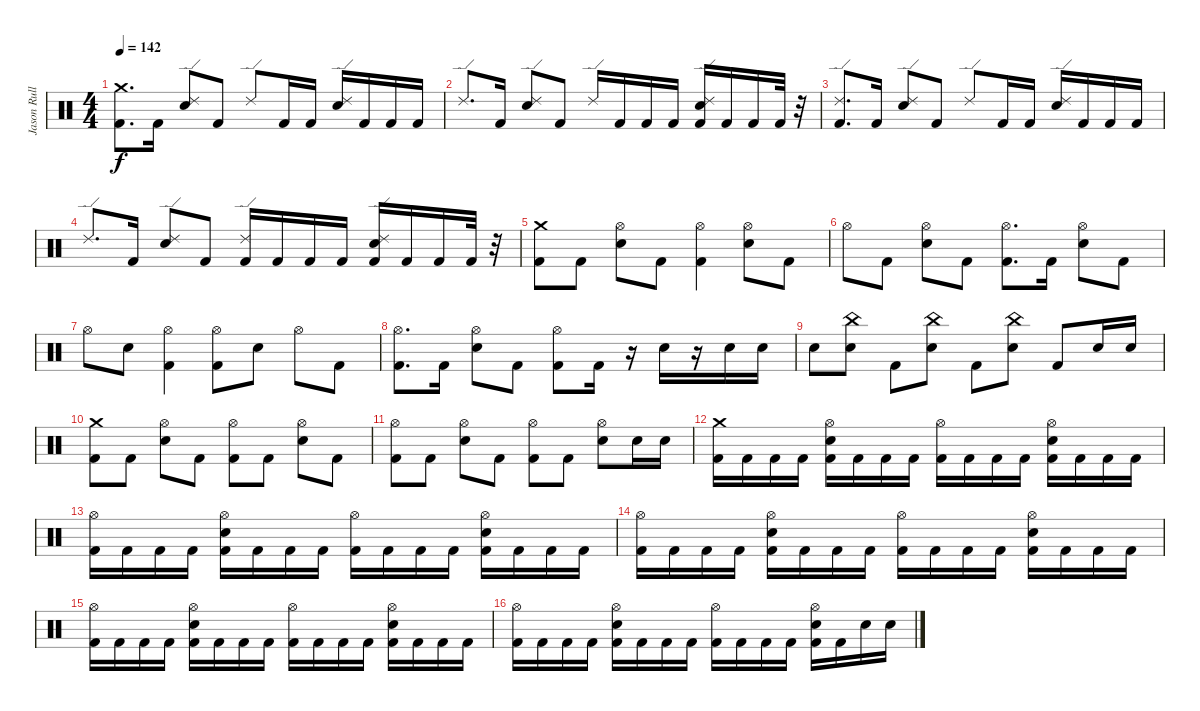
\track ("Jason Rullo (drums)" "Jason Rull") {solo instrument percussion}
\staff {score}
\articulation defaults
\ts (4 4)
\tempo 142
\clef neutral
\ks c
("Crash medium (hit)" "Kick (hit) 2").8{d dy f} "Kick (hit) 2".16 ("Ride (edge) 2" "Electric Snare (hit)").8 "Kick (hit) 2".8 "Ride (edge) 2".8 "Kick (hit) 2".16 "Kick (hit) 2".16 ("Ride (edge) 2" "Electric Snare (hit)").16 "Kick (hit) 2".16 "Kick (hit) 2".16 "Kick (hit) 2".16 |
"Ride (edge) 2".8{d} "Kick (hit) 2".16 ("Ride (edge) 2" "Electric Snare (hit)").8 "Kick (hit) 2".8 "Ride (edge) 2".16 "Kick (hit) 2".16 "Kick (hit) 2".16 "Kick (hit) 2".16 ("Ride (edge) 2" "Electric Snare (hit)" "Kick (hit) 2").16 "Kick (hit) 2".16 "Kick (hit) 2".16 "Kick (hit) 2".32 r.32 |
("Ride (edge) 2" "Kick (hit) 2").8{d} "Kick (hit) 2".16 ("Ride (edge) 2" "Electric Snare (hit)").8 "Kick (hit) 2".8 "Ride (edge) 2".8 "Kick (hit) 2".16 "Kick (hit) 2".16 ("Ride (edge) 2" "Electric Snare (hit)").16 "Kick (hit) 2".16 "Kick (hit) 2".16 "Kick (hit) 2".16 |
"Ride (edge) 2".8{d} "Kick (hit) 2".16 ("Ride (edge) 2" "Electric Snare (hit)").8 "Kick (hit) 2".8 ("Kick (hit) 2" "Ride (edge) 2").16 "Kick (hit) 2".16 "Kick (hit) 2".16 "Kick (hit) 2".16 ("Ride (edge) 2" "Electric Snare (hit)" "Kick (hit) 2").16 "Kick (hit) 2".16 "Kick (hit) 2".16 "Kick (hit) 2".32 r.32 |
("Crash medium (hit)" "Kick (hit) 2").8 "Kick (hit) 2".8 ("Hi-Hat (open)" "Electric Snare (hit)").8 "Kick (hit) 2".8 ("Hi-Hat (open)" "Kick (hit) 2").4 ("Hi-Hat (open)" "Electric Snare (hit)").8 "Kick (hit) 2".8 |
"Hi-Hat (open)".8 "Kick (hit) 2".8 ("Hi-Hat (open)" "Electric Snare (hit)").8 "Kick (hit) 2".8 ("Hi-Hat (open)" "Kick (hit) 2").8{d} "Kick (hit) 2".16 ("Hi-Hat (open)" "Electric Snare (hit)").8 "Kick (hit) 2".8 |
"Hi-Hat (open)".8 "Electric Snare (hit)".8 ("Kick (hit) 2" "Hi-Hat (open)").4 ("Hi-Hat (open)" "Kick (hit) 2").8 "Electric Snare (hit)".8 "Hi-Hat (open)".8 "Kick (hit) 2".8 |
("Hi-Hat (open)" "Kick (hit) 2").8{d} "Kick (hit) 2".16 ("Hi-Hat (open)" "Electric Snare (hit)").8 "Kick (hit) 2".8 ("Hi-Hat (open)" "Kick (hit) 2").8 "Kick (hit) 2".16 r.16 "Electric Snare (hit)".16 r.16 "Electric Snare (hit)".16 "Electric Snare (hit)".16 |
"Electric Snare (hit)".8 ("China (hit)" "Electric Snare (hit)").8 "Kick (hit) 2".8 ("Electric Snare (hit)" "China (hit)").8 "Kick (hit) 2".8 ("Electric Snare (hit)" "China (hit)").8 "Kick (hit) 2".8 "Electric Snare (hit)".16 "Electric Snare (hit)".16 |
("Kick (hit) 2" "Crash medium (hit)").8 "Kick (hit) 2".8 ("Electric Snare (hit)" "Hi-Hat (open)").8 "Kick (hit) 2".8 ("Kick (hit) 2" "Hi-Hat (open)").8 "Kick (hit) 2".8 ("Electric Snare (hit)" "Hi-Hat (open)").8 "Kick (hit) 2".8 |
("Kick (hit) 2" "Hi-Hat (open)").8 "Kick (hit) 2".8 ("Electric Snare (hit)" "Hi-Hat (open)").8 "Kick (hit) 2".8 ("Kick (hit) 2" "Hi-Hat (open)").8 "Kick (hit) 2".8 ("Electric Snare (hit)" "Hi-Hat (open)").8 "Electric Snare (hit)".16 "Electric Snare (hit)".16 |
("Kick (hit) 2" "Crash medium (hit)").16 "Kick (hit) 2".16 "Kick (hit) 2".16 "Kick (hit) 2".16 ("Kick (hit) 2" "Electric Snare (hit)" "Hi-Hat (open)").16 "Kick (hit) 2".16 "Kick (hit) 2".16 "Kick (hit) 2".16 ("Kick (hit) 2" "Hi-Hat (open)").16 "Kick (hit) 2".16 "Kick (hit) 2".16 "Kick (hit) 2".16 ("Kick (hit) 2" "Electric Snare (hit)" "Hi-Hat (open)").16 "Kick (hit) 2".16 "Kick (hit) 2".16 "Kick (hit) 2".16 |
("Hi-Hat (open)" "Kick (hit) 2").16 "Kick (hit) 2".16 "Kick (hit) 2".16 "Kick (hit) 2".16 ("Kick (hit) 2" "Electric Snare (hit)" "Hi-Hat (open)").16 "Kick (hit) 2".16 "Kick (hit) 2".16 "Kick (hit) 2".16 ("Kick (hit) 2" "Hi-Hat (open)").16 "Kick (hit) 2".16 "Kick (hit) 2".16 "Kick (hit) 2".16 ("Kick (hit) 2" "Electric Snare (hit)" "Hi-Hat (open)").16 "Kick (hit) 2".16 "Kick (hit) 2".16 "Kick (hit) 2".16 |
("Hi-Hat (open)" "Kick (hit) 2").16 "Kick (hit) 2".16 "Kick (hit) 2".16 "Kick (hit) 2".16 ("Kick (hit) 2" "Electric Snare (hit)" "Hi-Hat (open)").16 "Kick (hit) 2".16 "Kick (hit) 2".16 "Kick (hit) 2".16 ("Kick (hit) 2" "Hi-Hat (open)").16 "Kick (hit) 2".16 "Kick (hit) 2".16 "Kick (hit) 2".16 ("Kick (hit) 2" "Electric Snare (hit)" "Hi-Hat (open)").16 "Kick (hit) 2".16 "Kick (hit) 2".16 "Kick (hit) 2".16 |
("Hi-Hat (open)" "Kick (hit) 2").16 "Kick (hit) 2".16 "Kick (hit) 2".16 "Kick (hit) 2".16 ("Kick (hit) 2" "Electric Snare (hit)" "Hi-Hat (open)").16 "Kick (hit) 2".16 "Kick (hit) 2".16 "Kick (hit) 2".16 ("Kick (hit) 2" "Hi-Hat (open)").16 "Kick (hit) 2".16 "Kick (hit) 2".16 "Kick (hit) 2".16 ("Kick (hit) 2" "Electric Snare (hit)" "Hi-Hat (open)").16 "Kick (hit) 2".16 "Kick (hit) 2".16 "Kick (hit) 2".16 |
("Hi-Hat (open)" "Kick (hit) 2").16 "Kick (hit) 2".16 "Kick (hit) 2".16 "Kick (hit) 2".16 ("Kick (hit) 2" "Electric Snare (hit)" "Hi-Hat (open)").16 "Kick (hit) 2".16 "Kick (hit) 2".16 "Kick (hit) 2".16 ("Kick (hit) 2" "Hi-Hat (open)").16 "Kick (hit) 2".16 "Kick (hit) 2".16 "Kick (hit) 2".16 ("Kick (hit) 2" "Electric Snare (hit)" "Hi-Hat (open)").16 "Kick (hit) 2".16 "Electric Snare (hit)".16 "Electric Snare (hit)".16
